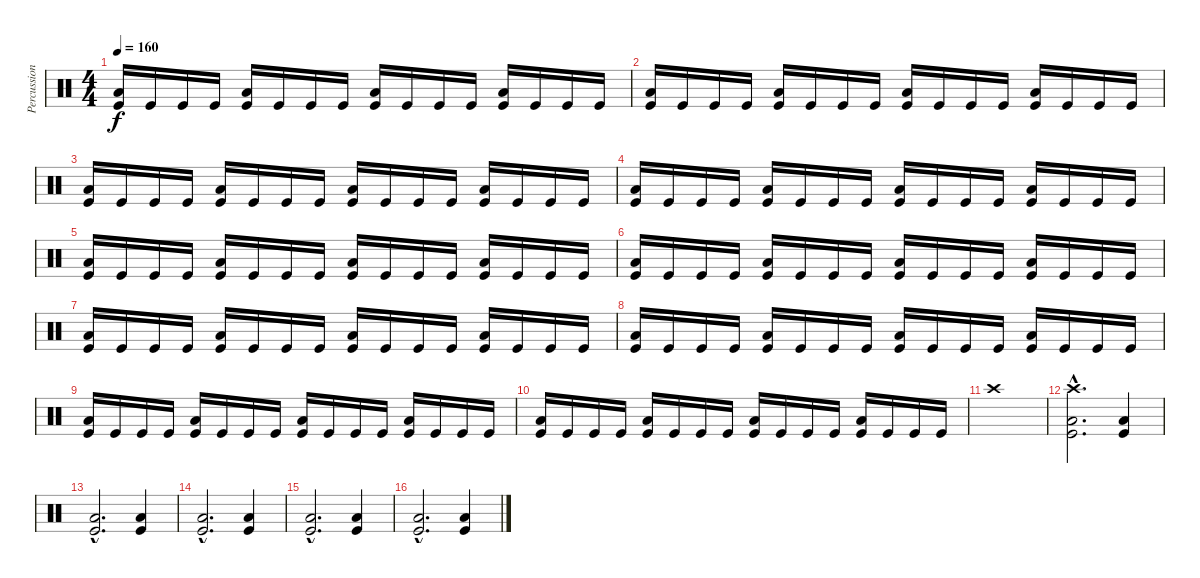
\track ("Percussion" "Percussion") {instrument percussion}
\staff {score}
\articulation defaults
\ts (4 4)
\tempo 160
\clef neutral
\ks c
("Low Floor Tom (hit)" "Kick (hit)").16{dy f} "Kick (hit)".16 "Kick (hit)".16 "Kick (hit)".16 ("Low Floor Tom (hit)" "Kick (hit)").16 "Kick (hit)".16 "Kick (hit)".16 "Kick (hit)".16 ("Low Floor Tom (hit)" "Kick (hit)").16 "Kick (hit)".16 "Kick (hit)".16 "Kick (hit)".16 ("Low Floor Tom (hit)" "Kick (hit)").16 "Kick (hit)".16 "Kick (hit)".16 "Kick (hit)".16 |
("Low Floor Tom (hit)" "Kick (hit)").16 "Kick (hit)".16 "Kick (hit)".16 "Kick (hit)".16 ("Low Floor Tom (hit)" "Kick (hit)").16 "Kick (hit)".16 "Kick (hit)".16 "Kick (hit)".16 ("Low Floor Tom (hit)" "Kick (hit)").16 "Kick (hit)".16 "Kick (hit)".16 "Kick (hit)".16 ("Low Floor Tom (hit)" "Kick (hit)").16 "Kick (hit)".16 "Kick (hit)".16 "Kick (hit)".16 |
("Low Floor Tom (hit)" "Kick (hit)").16 "Kick (hit)".16 "Kick (hit)".16 "Kick (hit)".16 ("Low Floor Tom (hit)" "Kick (hit)").16 "Kick (hit)".16 "Kick (hit)".16 "Kick (hit)".16 ("Low Floor Tom (hit)" "Kick (hit)").16 "Kick (hit)".16 "Kick (hit)".16 "Kick (hit)".16 ("Low Floor Tom (hit)" "Kick (hit)").16 "Kick (hit)".16 "Kick (hit)".16 "Kick (hit)".16 |
("Low Floor Tom (hit)" "Kick (hit)").16 "Kick (hit)".16 "Kick (hit)".16 "Kick (hit)".16 ("Low Floor Tom (hit)" "Kick (hit)").16 "Kick (hit)".16 "Kick (hit)".16 "Kick (hit)".16 ("Low Floor Tom (hit)" "Kick (hit)").16 "Kick (hit)".16 "Kick (hit)".16 "Kick (hit)".16 ("Low Floor Tom (hit)" "Kick (hit)").16 "Kick (hit)".16 "Kick (hit)".16 "Kick (hit)".16 |
("Low Floor Tom (hit)" "Kick (hit)").16 "Kick (hit)".16 "Kick (hit)".16 "Kick (hit)".16 ("Low Floor Tom (hit)" "Kick (hit)").16 "Kick (hit)".16 "Kick (hit)".16 "Kick (hit)".16 ("Low Floor Tom (hit)" "Kick (hit)").16 "Kick (hit)".16 "Kick (hit)".16 "Kick (hit)".16 ("Low Floor Tom (hit)" "Kick (hit)").16 "Kick (hit)".16 "Kick (hit)".16 "Kick (hit)".16 |
("Low Floor Tom (hit)" "Kick (hit)").16 "Kick (hit)".16 "Kick (hit)".16 "Kick (hit)".16 ("Low Floor Tom (hit)" "Kick (hit)").16 "Kick (hit)".16 "Kick (hit)".16 "Kick (hit)".16 ("Low Floor Tom (hit)" "Kick (hit)").16 "Kick (hit)".16 "Kick (hit)".16 "Kick (hit)".16 ("Low Floor Tom (hit)" "Kick (hit)").16 "Kick (hit)".16 "Kick (hit)".16 "Kick (hit)".16 |
("Low Floor Tom (hit)" "Kick (hit)").16 "Kick (hit)".16 "Kick (hit)".16 "Kick (hit)".16 ("Low Floor Tom (hit)" "Kick (hit)").16 "Kick (hit)".16 "Kick (hit)".16 "Kick (hit)".16 ("Low Floor Tom (hit)" "Kick (hit)").16 "Kick (hit)".16 "Kick (hit)".16 "Kick (hit)".16 ("Low Floor Tom (hit)" "Kick (hit)").16 "Kick (hit)".16 "Kick (hit)".16 "Kick (hit)".16 |
("Low Floor Tom (hit)" "Kick (hit)").16 "Kick (hit)".16 "Kick (hit)".16 "Kick (hit)".16 ("Low Floor Tom (hit)" "Kick (hit)").16 "Kick (hit)".16 "Kick (hit)".16 "Kick (hit)".16 ("Low Floor Tom (hit)" "Kick (hit)").16 "Kick (hit)".16 "Kick (hit)".16 "Kick (hit)".16 ("Low Floor Tom (hit)" "Kick (hit)").16 "Kick (hit)".16 "Kick (hit)".16 "Kick (hit)".16 |
("Low Floor Tom (hit)" "Kick (hit)").16 "Kick (hit)".16 "Kick (hit)".16 "Kick (hit)".16 ("Low Floor Tom (hit)" "Kick (hit)").16 "Kick (hit)".16 "Kick (hit)".16 "Kick (hit)".16 ("Low Floor Tom (hit)" "Kick (hit)").16 "Kick (hit)".16 "Kick (hit)".16 "Kick (hit)".16 ("Low Floor Tom (hit)" "Kick (hit)").16 "Kick (hit)".16 "Kick (hit)".16 "Kick (hit)".16 |
("Low Floor Tom (hit)" "Kick (hit)").16 "Kick (hit)".16 "Kick (hit)".16 "Kick (hit)".16 ("Low Floor Tom (hit)" "Kick (hit)").16 "Kick (hit)".16 "Kick (hit)".16 "Kick (hit)".16 ("Low Floor Tom (hit)" "Kick (hit)").16 "Kick (hit)".16 "Kick (hit)".16 "Kick (hit)".16 ("Low Floor Tom (hit)" "Kick (hit)").16 "Kick (hit)".16 "Kick (hit)".16 "Kick (hit)".16 |
"Crash high (hit)".1 |
("Crash high (hit)"{hac} "Low Floor Tom (hit)"{hac} "Kick (hit)"{hac}).2{d} ("Low Floor Tom (hit)" "Kick (hit)").4 |
("Low Floor Tom (hit)"{hac} "Kick (hit)"{hac}).2{d} ("Low Floor Tom (hit)" "Kick (hit)").4 |
("Low Floor Tom (hit)"{hac} "Kick (hit)"{hac}).2{d} ("Low Floor Tom (hit)" "Kick (hit)").4 |
("Low Floor Tom (hit)"{hac} "Kick (hit)"{hac}).2{d} ("Low Floor Tom (hit)" "Kick (hit)").4 |
("Low Floor Tom (hit)"{hac} "Kick (hit)"{hac}).2{d} ("Low Floor Tom (hit)" "Kick (hit)").4
